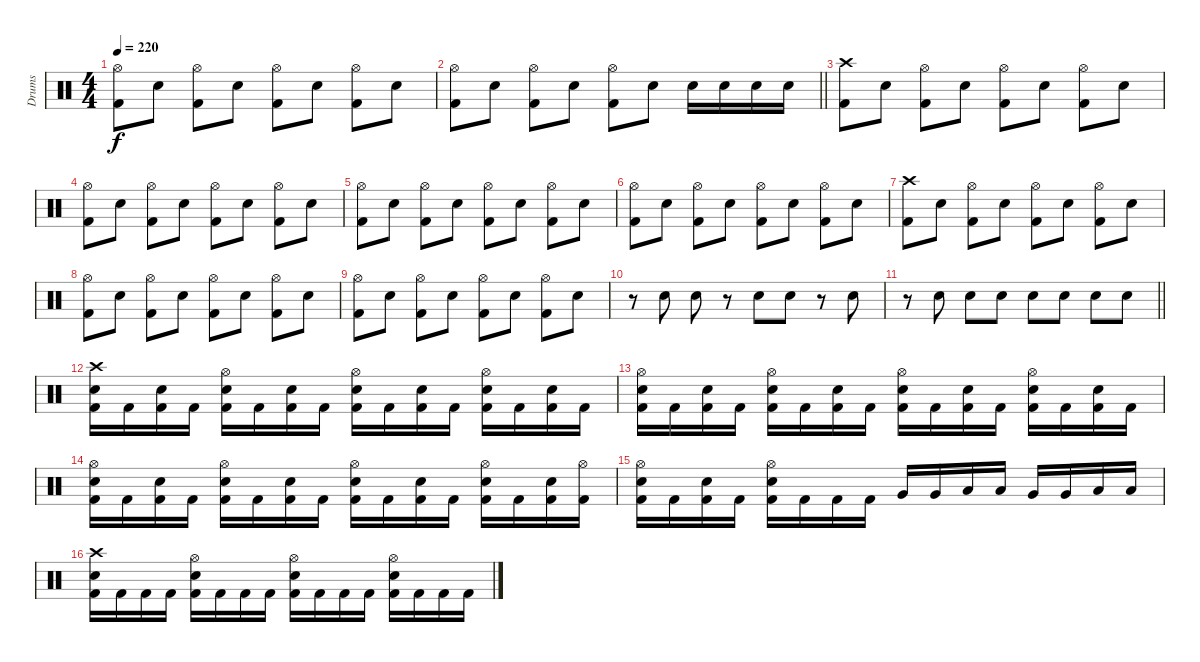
\track ("Drums" "Drums") {instrument percussion}
\staff {score}
\articulation defaults
\ts (4 4)
\tempo 220
\clef neutral
\ks c
("Hi-Hat (open)" "Kick (hit) 2").8{dy f} "Electric Snare (hit)".8 ("Hi-Hat (open)" "Kick (hit) 2").8 "Electric Snare (hit)".8 ("Hi-Hat (open)" "Kick (hit) 2").8 "Electric Snare (hit)".8 ("Hi-Hat (open)" "Kick (hit) 2").8 "Electric Snare (hit)".8 |
\barLineRight lightlight
("Hi-Hat (open)" "Kick (hit) 2").8 "Electric Snare (hit)".8 ("Hi-Hat (open)" "Kick (hit) 2").8 "Electric Snare (hit)".8 ("Hi-Hat (open)" "Kick (hit) 2").8 "Electric Snare (hit)".8 "Electric Snare (hit)".16 "Electric Snare (hit)".16 "Electric Snare (hit)".16 "Electric Snare (hit)".16 |
("Crash high (hit)" "Kick (hit) 2").8 "Electric Snare (hit)".8 ("Hi-Hat (open)" "Kick (hit) 2").8 "Electric Snare (hit)".8 ("Hi-Hat (open)" "Kick (hit) 2").8 "Electric Snare (hit)".8 ("Hi-Hat (open)" "Kick (hit) 2").8 "Electric Snare (hit)".8 |
("Hi-Hat (open)" "Kick (hit) 2").8 "Electric Snare (hit)".8 ("Hi-Hat (open)" "Kick (hit) 2").8 "Electric Snare (hit)".8 ("Hi-Hat (open)" "Kick (hit) 2").8 "Electric Snare (hit)".8 ("Hi-Hat (open)" "Kick (hit) 2").8 "Electric Snare (hit)".8 |
("Hi-Hat (open)" "Kick (hit) 2").8 "Electric Snare (hit)".8 ("Hi-Hat (open)" "Kick (hit) 2").8 "Electric Snare (hit)".8 ("Hi-Hat (open)" "Kick (hit) 2").8 "Electric Snare (hit)".8 ("Hi-Hat (open)" "Kick (hit) 2").8 "Electric Snare (hit)".8 |
("Hi-Hat (open)" "Kick (hit) 2").8 "Electric Snare (hit)".8 ("Hi-Hat (open)" "Kick (hit) 2").8 "Electric Snare (hit)".8 ("Hi-Hat (open)" "Kick (hit) 2").8 "Electric Snare (hit)".8 ("Hi-Hat (open)" "Kick (hit) 2").8 "Electric Snare (hit)".8 |
("Crash high (hit)" "Kick (hit) 2").8 "Electric Snare (hit)".8 ("Hi-Hat (open)" "Kick (hit) 2").8 "Electric Snare (hit)".8 ("Hi-Hat (open)" "Kick (hit) 2").8 "Electric Snare (hit)".8 ("Hi-Hat (open)" "Kick (hit) 2").8 "Electric Snare (hit)".8 |
("Hi-Hat (open)" "Kick (hit) 2").8 "Electric Snare (hit)".8 ("Hi-Hat (open)" "Kick (hit) 2").8 "Electric Snare (hit)".8 ("Hi-Hat (open)" "Kick (hit) 2").8 "Electric Snare (hit)".8 ("Hi-Hat (open)" "Kick (hit) 2").8 "Electric Snare (hit)".8 |
("Hi-Hat (open)" "Kick (hit) 2").8 "Electric Snare (hit)".8 ("Hi-Hat (open)" "Kick (hit) 2").8 "Electric Snare (hit)".8 ("Hi-Hat (open)" "Kick (hit) 2").8 "Electric Snare (hit)".8 ("Hi-Hat (open)" "Kick (hit) 2").8 "Electric Snare (hit)".8 |
r.8 "Electric Snare (hit)".8 "Electric Snare (hit)".8 r.8 "Electric Snare (hit)".8 "Electric Snare (hit)".8 r.8 "Electric Snare (hit)".8 |
\barLineRight lightlight
r.8 "Electric Snare (hit)".8 "Electric Snare (hit)".8 "Electric Snare (hit)".8 "Electric Snare (hit)".8 "Electric Snare (hit)".8 "Electric Snare (hit)".8 "Electric Snare (hit)".8 |
("Crash high (hit)" "Electric Snare (hit)" "Kick (hit) 2").16 "Kick (hit) 2".16 ("Electric Snare (hit)" "Kick (hit) 2").16 "Kick (hit) 2".16 ("Hi-Hat (open)" "Electric Snare (hit)" "Kick (hit) 2").16 "Kick (hit) 2".16 ("Electric Snare (hit)" "Kick (hit) 2").16 "Kick (hit) 2".16 ("Hi-Hat (open)" "Electric Snare (hit)" "Kick (hit) 2").16 "Kick (hit) 2".16 ("Electric Snare (hit)" "Kick (hit) 2").16 "Kick (hit) 2".16 ("Hi-Hat (open)" "Electric Snare (hit)" "Kick (hit) 2").16 "Kick (hit) 2".16 ("Electric Snare (hit)" "Kick (hit) 2").16 "Kick (hit) 2".16 |
("Hi-Hat (open)" "Electric Snare (hit)" "Kick (hit) 2").16 "Kick (hit) 2".16 ("Electric Snare (hit)" "Kick (hit) 2").16 "Kick (hit) 2".16 ("Hi-Hat (open)" "Electric Snare (hit)" "Kick (hit) 2").16 "Kick (hit) 2".16 ("Electric Snare (hit)" "Kick (hit) 2").16 "Kick (hit) 2".16 ("Hi-Hat (open)" "Electric Snare (hit)" "Kick (hit) 2").16 "Kick (hit) 2".16 ("Electric Snare (hit)" "Kick (hit) 2").16 "Kick (hit) 2".16 ("Hi-Hat (open)" "Electric Snare (hit)" "Kick (hit) 2").16 "Kick (hit) 2".16 ("Electric Snare (hit)" "Kick (hit) 2").16 "Kick (hit) 2".16 |
("Hi-Hat (open)" "Electric Snare (hit)" "Kick (hit) 2").16 "Kick (hit) 2".16 ("Electric Snare (hit)" "Kick (hit) 2").16 "Kick (hit) 2".16 ("Hi-Hat (open)" "Electric Snare (hit)" "Kick (hit) 2").16 "Kick (hit) 2".16 ("Electric Snare (hit)" "Kick (hit) 2").16 "Kick (hit) 2".16 ("Hi-Hat (open)" "Electric Snare (hit)" "Kick (hit) 2").16 "Kick (hit) 2".16 ("Electric Snare (hit)" "Kick (hit) 2").16 "Kick (hit) 2".16 ("Hi-Hat (open)" "Electric Snare (hit)" "Kick (hit) 2").16 "Kick (hit) 2".16 ("Electric Snare (hit)" "Kick (hit) 2").16 ("Hi-Hat (open)" "Kick (hit) 2").16 |
("Hi-Hat (open)" "Electric Snare (hit)" "Kick (hit) 2").16 "Kick (hit) 2".16 ("Electric Snare (hit)" "Kick (hit) 2").16 "Kick (hit) 2".16 ("Hi-Hat (open)" "Electric Snare (hit)" "Kick (hit) 2").16 "Kick (hit) 2".16 "Kick (hit) 2".16 "Kick (hit) 2".16 "Very Low Tom (hit)".16 "Very Low Tom (hit)".16 "Low Tom (hit)".16 "Low Tom (hit)".16 "Very Low Tom (hit)".16 "Very Low Tom (hit)".16 "Low Floor Tom (hit)".16 "Low Floor Tom (hit)".16 |
("Crash high (hit)" "Electric Snare (hit)" "Kick (hit) 2").16 "Kick (hit) 2".16 "Kick (hit) 2".16 "Kick (hit) 2".16 ("Hi-Hat (open)" "Electric Snare (hit)" "Kick (hit) 2").16 "Kick (hit) 2".16 "Kick (hit) 2".16 "Kick (hit) 2".16 ("Hi-Hat (open)" "Electric Snare (hit)" "Kick (hit) 2").16 "Kick (hit) 2".16 "Kick (hit) 2".16 "Kick (hit) 2".16 ("Hi-Hat (open)" "Electric Snare (hit)" "Kick (hit) 2").16 "Kick (hit) 2".16 "Kick (hit) 2".16 "Kick (hit) 2".16
